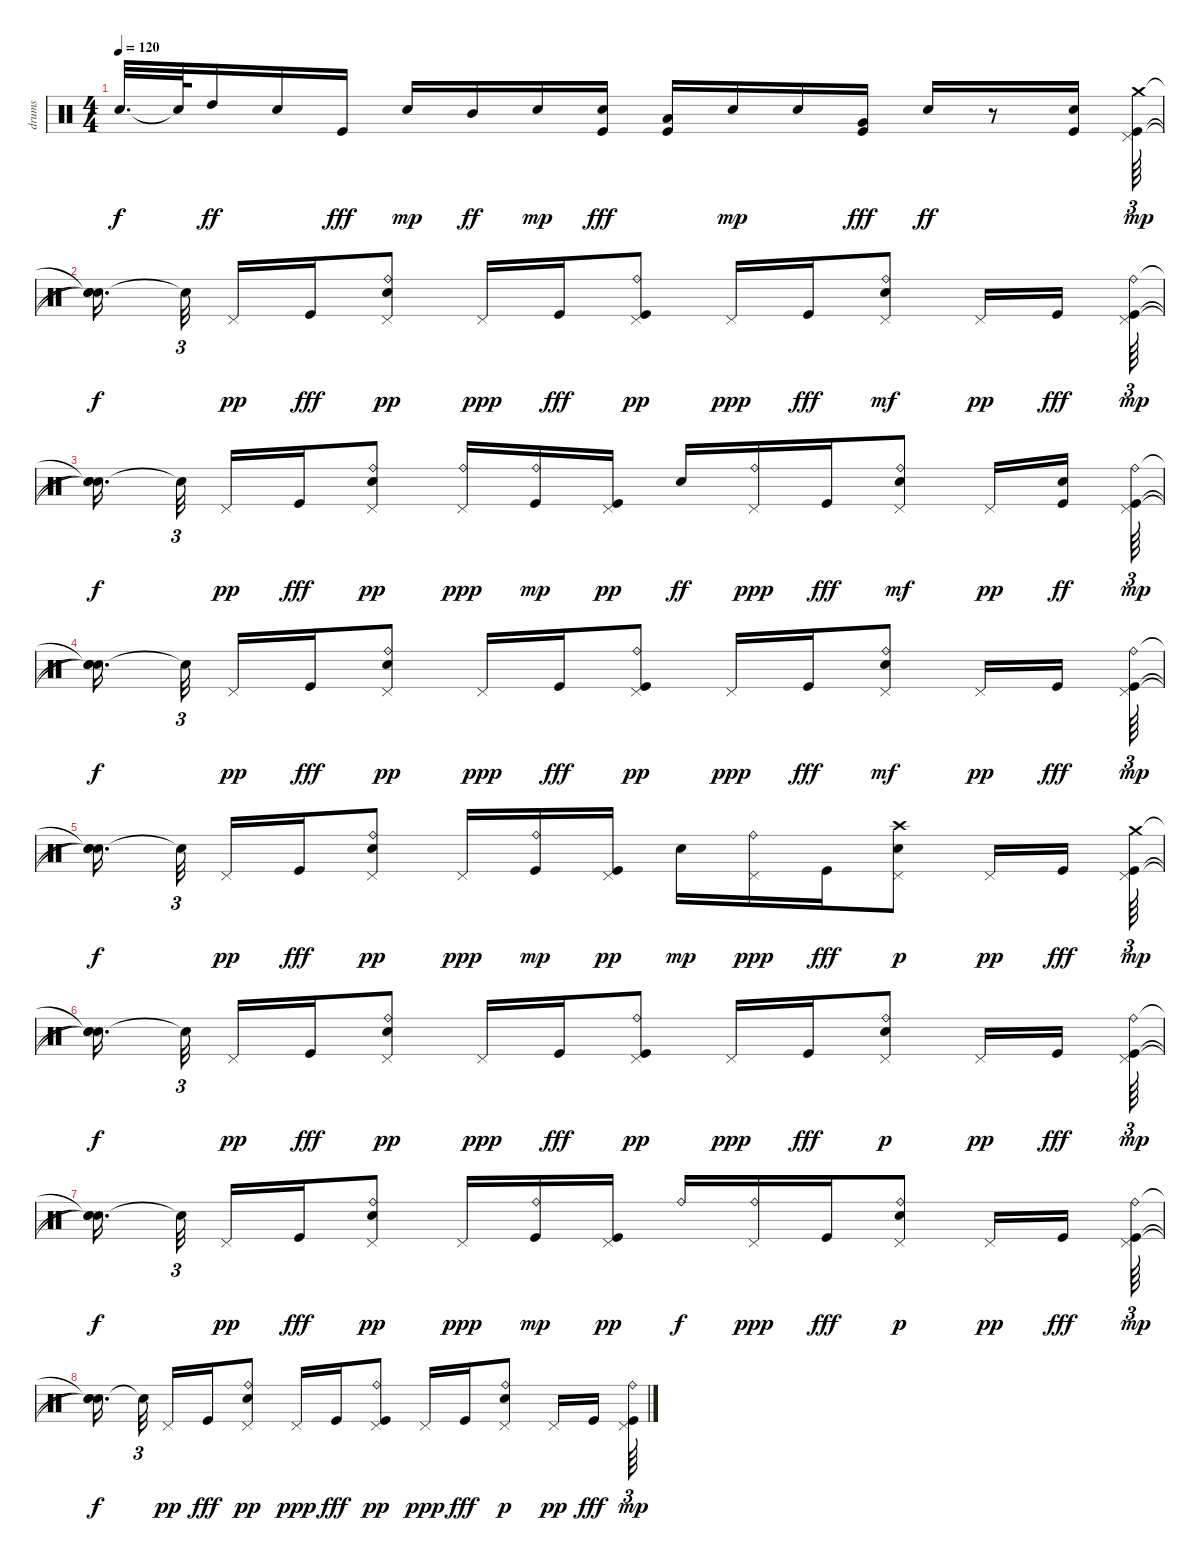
\track ("drums" "drums") {instrument percussion}
\staff {score}
\articulation defaults
\ts (4 4)
\tempo 120
\clef neutral
\ks c "Snare (hit)"{t}.32{d dy f} "Snare (hit)"{t}.64 "High Tom (hit)".16{dy ff} "Snare (hit) 2".16 "Kick (hit)".16{dy fff} "Snare (hit) 2".16{dy mp} "Mid Tom (hit)".16{dy ff} "Snare (hit) 2".16{dy mp}
("Snare (hit) 2" "Kick (hit)").16{dy fff} ("Low Tom (hit)" "Kick (hit)").16 "Snare (hit) 2".16{dy mp} "Snare (hit) 2".16 ("Very Low Tom (hit)" "Kick (hit)").16{dy fff} "Snare (hit) 2".16{dy ff} r.8 ("Kick (hit)" "Snare (hit) 2").16 ("Kick (hit)" "Pedal Hi-Hat (hit)" "Crash medium (hit)").64{tu (3 2) dy mp} |
("Snare (hit)"{t} "Snare (hit)"{t} "Snare (hit)"{t}).16{d dy f beam splitsecondary} "Snare (hit)"{t}.32{tu (3 2) beam splitsecondary} "Pedal Hi-Hat (hit)".16{dy pp} "Kick (hit)".16{dy fff} ("Snare (hit) 2" "Pedal Hi-Hat (hit)" "Ride (bell)").8{dy pp} "Pedal Hi-Hat (hit)".16{dy ppp} "Kick (hit)".16{dy fff} ("Kick (hit)" "Pedal Hi-Hat (hit)" "Ride (bell)").8{dy pp} "Pedal Hi-Hat (hit)".16{dy ppp} "Kick (hit)".16{dy fff} ("Snare (hit) 2" "Pedal Hi-Hat (hit)" "Ride (bell)").8{dy mf} "Pedal Hi-Hat (hit)".16{dy pp} "Kick (hit)".16{dy fff beam splitsecondary} ("Kick (hit)" "Pedal Hi-Hat (hit)" "Ride (bell)").64{tu (3 2) dy mp} |
("Snare (hit)"{t} "Snare (hit)"{t} "Snare (hit)"{t}).16{d dy f beam splitsecondary} "Snare (hit)"{t}.32{tu (3 2) beam splitsecondary} "Pedal Hi-Hat (hit)".16{dy pp} "Kick (hit)".16{dy fff} ("Snare (hit) 2" "Pedal Hi-Hat (hit)" "Ride (bell)").8{dy pp} ("Ride (bell)" "Pedal Hi-Hat (hit)").16{dy ppp} ("Kick (hit)" "Ride (bell)").16{dy mp} ("Kick (hit)" "Pedal Hi-Hat (hit)").16{dy pp} "Snare (hit) 2".16{dy ff} ("Pedal Hi-Hat (hit)" "Ride (bell)").16{dy ppp} "Kick (hit)".16{dy fff} ("Snare (hit) 2" "Pedal Hi-Hat (hit)" "Ride (bell)").8{dy mf} "Pedal Hi-Hat (hit)".16{dy pp} ("Kick (hit)" "Snare (hit) 2").16{dy ff beam splitsecondary} ("Kick (hit)" "Pedal Hi-Hat (hit)" "Ride (bell)").64{tu (3 2) dy mp} |
("Snare (hit)"{t} "Snare (hit)"{t} "Snare (hit)"{t}).16{d dy f beam splitsecondary} "Snare (hit)"{t}.32{tu (3 2) beam splitsecondary} "Pedal Hi-Hat (hit)".16{dy pp} "Kick (hit)".16{dy fff} ("Snare (hit) 2" "Pedal Hi-Hat (hit)" "Ride (bell)").8{dy pp} "Pedal Hi-Hat (hit)".16{dy ppp} "Kick (hit)".16{dy fff} ("Kick (hit)" "Pedal Hi-Hat (hit)" "Ride (bell)").8{dy pp} "Pedal Hi-Hat (hit)".16{dy ppp} "Kick (hit)".16{dy fff} ("Snare (hit) 2" "Pedal Hi-Hat (hit)" "Ride (bell)").8{dy mf} "Pedal Hi-Hat (hit)".16{dy pp} "Kick (hit)".16{dy fff beam splitsecondary} ("Kick (hit)" "Ride (bell)" "Pedal Hi-Hat (hit)").64{tu (3 2) dy mp} |
("Snare (hit)"{t} "Snare (hit)"{t} "Snare (hit)"{t}).16{d dy f beam splitsecondary} "Snare (hit)"{t}.32{tu (3 2) beam splitsecondary} "Pedal Hi-Hat (hit)".16{dy pp} "Kick (hit)".16{dy fff} ("Snare (hit) 2" "Ride (bell)" "Pedal Hi-Hat (hit)").8{dy pp} "Pedal Hi-Hat (hit)".16{dy ppp} ("Kick (hit)" "Ride (bell)").16{dy mp} ("Kick (hit)" "Pedal Hi-Hat (hit)").16{dy pp} "Snare (hit) 2".16{dy mp} ("Ride (bell)" "Pedal Hi-Hat (hit)").16{dy ppp} "Kick (hit)".16{dy fff} ("Snare (hit) 2" "Crash high (hit)" "Pedal Hi-Hat (hit)").8{dy p} "Pedal Hi-Hat (hit)".16{dy pp} "Kick (hit)".16{dy fff beam splitsecondary} ("Kick (hit)" "Crash medium (hit)" "Pedal Hi-Hat (hit)").64{tu (3 2) dy mp} |
("Snare (hit)"{t} "Snare (hit)"{t} "Snare (hit)"{t}).16{d dy f beam splitsecondary} "Snare (hit)"{t}.32{tu (3 2) beam splitsecondary} "Pedal Hi-Hat (hit)".16{dy pp} "Kick (hit)".16{dy fff} ("Snare (hit) 2" "Ride (bell)" "Pedal Hi-Hat (hit)").8{dy pp} "Pedal Hi-Hat (hit)".16{dy ppp} "Kick (hit)".16{dy fff} ("Kick (hit)" "Ride (bell)" "Pedal Hi-Hat (hit)").8{dy pp} "Pedal Hi-Hat (hit)".16{dy ppp} "Kick (hit)".16{dy fff} ("Snare (hit) 2" "Ride (bell)" "Pedal Hi-Hat (hit)").8{dy p} "Pedal Hi-Hat (hit)".16{dy pp} "Kick (hit)".16{dy fff beam splitsecondary} ("Kick (hit)" "Ride (bell)" "Pedal Hi-Hat (hit)").64{tu (3 2) dy mp} |
("Snare (hit)"{t} "Snare (hit)"{t} "Snare (hit)"{t}).16{d dy f beam splitsecondary} "Snare (hit)"{t}.32{tu (3 2) beam splitsecondary} "Pedal Hi-Hat (hit)".16{dy pp} "Kick (hit)".16{dy fff} ("Snare (hit) 2" "Ride (bell)" "Pedal Hi-Hat (hit)").8{dy pp} "Pedal Hi-Hat (hit)".16{dy ppp} ("Kick (hit)" "Ride (bell)").16{dy mp} ("Kick (hit)" "Pedal Hi-Hat (hit)").16{dy pp} "Ride (bell)".16{dy f} ("Ride (bell)" "Pedal Hi-Hat (hit)").16{dy ppp} "Kick (hit)".16{dy fff} ("Snare (hit) 2" "Ride (bell)" "Pedal Hi-Hat (hit)").8{dy p} "Pedal Hi-Hat (hit)".16{dy pp} "Kick (hit)".16{dy fff beam splitsecondary} ("Kick (hit)" "Ride (bell)" "Pedal Hi-Hat (hit)").64{tu (3 2) dy mp} |
("Snare (hit)"{t} "Snare (hit)"{t} "Snare (hit)"{t}).16{d dy f beam splitsecondary} "Snare (hit)"{t}.32{tu (3 2) beam splitsecondary} "Pedal Hi-Hat (hit)".16{dy pp} "Kick (hit)".16{dy fff} ("Snare (hit) 2" "Ride (bell)" "Pedal Hi-Hat (hit)").8{dy pp} "Pedal Hi-Hat (hit)".16{dy ppp} "Kick (hit)".16{dy fff} ("Kick (hit)" "Ride (bell)" "Pedal Hi-Hat (hit)").8{dy pp} "Pedal Hi-Hat (hit)".16{dy ppp} "Kick (hit)".16{dy fff} ("Snare (hit) 2" "Ride (bell)" "Pedal Hi-Hat (hit)").8{dy p} "Pedal Hi-Hat (hit)".16{dy pp} "Kick (hit)".16{dy fff beam splitsecondary} ("Kick (hit)" "Ride (bell)" "Pedal Hi-Hat (hit)").64{tu (3 2) dy mp}
